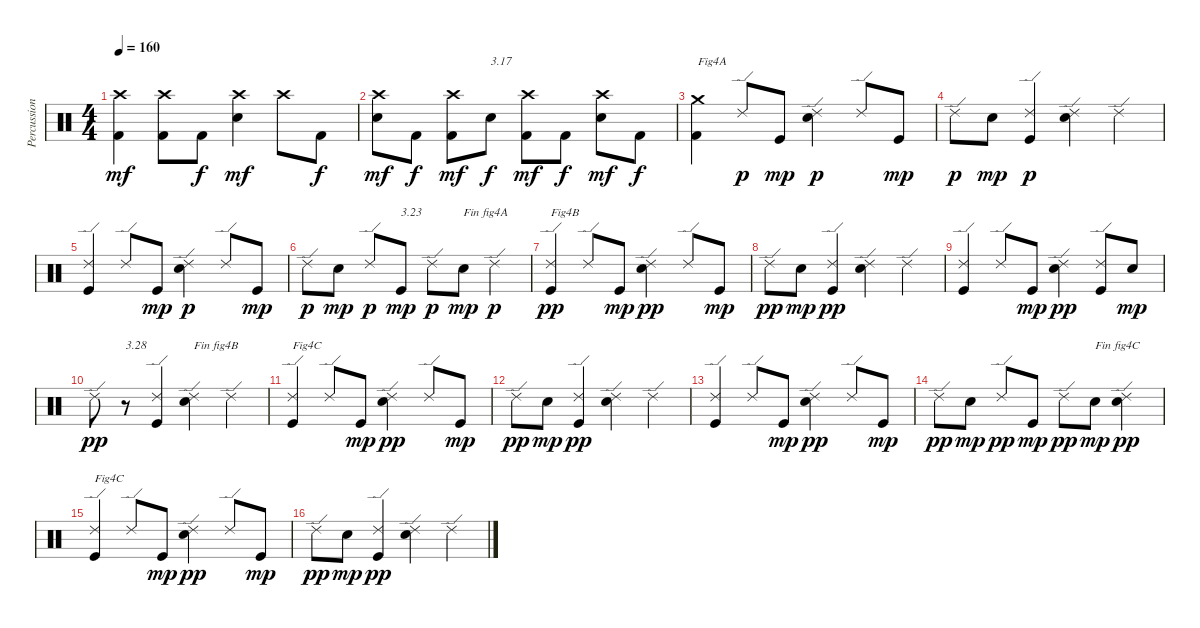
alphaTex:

\track ("Percussions" "Percussion") {instrument percussion}
\staff {score}
\articulation defaults
\ts (4 4)
\tempo 160
\clef neutral
\ks c
("Kick (hit) 2" "Crash high (hit)").4{dy mf} ("Kick (hit) 2" "Crash high (hit)").8 "Kick (hit) 2".8{dy f} ("Electric Snare (hit)" "Crash high (hit)").4{dy mf} "Crash high (hit)".8 "Kick (hit) 2".8{dy f} |
("Electric Snare (hit)" "Crash high (hit)").8{dy mf} "Kick (hit) 2".8{dy f} ("Kick (hit) 2" "Crash high (hit)").8{dy mf} "Electric Snare (hit)".8{txt "3.17" dy f} ("Kick (hit) 2" "Crash high (hit)").8{dy mf} "Kick (hit) 2".8{dy f} ("Electric Snare (hit)" "Crash high (hit)").8{dy mf} "Kick (hit) 2".8{dy f} |
("Kick (hit) 2" "Crash medium (hit)").4{txt "Fig4A"} "Ride (edge) 2".8{dy p} "Kick (hit)".8{dy mp} ("Snare (hit) 2" "Ride (edge) 2").4{dy p} "Ride (edge) 2".8 "Kick (hit)".8{dy mp} |
"Ride (edge) 2".8{dy p} "Snare (hit) 2".8{dy mp} ("Kick (hit)" "Ride (edge) 2").4{dy p} ("Snare (hit) 2" "Ride (edge) 2").4 "Ride (edge) 2".4 |
("Kick (hit)" "Ride (edge) 2").4 "Ride (edge) 2".8 "Kick (hit)".8{dy mp} ("Snare (hit) 2" "Ride (edge) 2").4{dy p} "Ride (edge) 2".8 "Kick (hit)".8{dy mp} |
"Ride (edge) 2".8{dy p} "Snare (hit) 2".8{dy mp} "Ride (edge) 2".8{dy p} "Kick (hit)".8{txt "3.23" dy mp} "Ride (edge) 2".8{dy p} "Snare (hit) 2".8{txt "Fin fig4A" dy mp} "Ride (edge) 2".4{dy p} |
("Kick (hit)" "Ride (edge) 2").4{txt "Fig4B" dy pp} "Ride (edge) 2".8 "Kick (hit)".8{dy mp} ("Snare (hit) 2" "Ride (edge) 2").4{dy pp} "Ride (edge) 2".8 "Kick (hit)".8{dy mp} |
"Ride (edge) 2".8{dy pp} "Snare (hit) 2".8{dy mp} ("Kick (hit)" "Ride (edge) 2").4{dy pp} ("Snare (hit) 2" "Ride (edge) 2").4 "Ride (edge) 2".4 |
("Kick (hit)" "Ride (edge) 2").4 "Ride (edge) 2".8 "Kick (hit)".8{dy mp} ("Snare (hit) 2" "Ride (edge) 2").4{dy pp} ("Kick (hit)" "Ride (edge) 2").8 "Snare (hit) 2".8{dy mp} |
"Ride (edge) 2".8{dy pp} r.8{txt "3.28"} ("Kick (hit)" "Ride (edge) 2").4 ("Snare (hit) 2" "Ride (edge) 2").4{txt "Fin fig4B"} "Ride (edge) 2".4 |
("Kick (hit)" "Ride (edge) 2").4{txt "Fig4C"} "Ride (edge) 2".8 "Kick (hit)".8{dy mp} ("Snare (hit) 2" "Ride (edge) 2").4{dy pp} "Ride (edge) 2".8 "Kick (hit)".8{dy mp} |
"Ride (edge) 2".8{dy pp} "Snare (hit) 2".8{dy mp} ("Kick (hit)" "Ride (edge) 2").4{dy pp} ("Snare (hit) 2" "Ride (edge) 2").4 "Ride (edge) 2".4 |
("Kick (hit)" "Ride (edge) 2").4 "Ride (edge) 2".8 "Kick (hit)".8{dy mp} ("Snare (hit) 2" "Ride (edge) 2").4{dy pp} "Ride (edge) 2".8 "Kick (hit)".8{dy mp} |
"Ride (edge) 2".8{dy pp} "Snare (hit) 2".8{dy mp} "Ride (edge) 2".8{dy pp} "Kick (hit)".8{dy mp} "Ride (edge) 2".8{dy pp} "Snare (hit) 2".8{txt "Fin fig4C" dy mp} ("Snare (hit) 2" "Ride (edge) 2").4{dy pp} |
("Kick (hit)" "Ride (edge) 2").4{txt "Fig4C"} "Ride (edge) 2".8 "Kick (hit)".8{dy mp} ("Snare (hit) 2" "Ride (edge) 2").4{dy pp} "Ride (edge) 2".8 "Kick (hit)".8{dy mp} |
"Ride (edge) 2".8{dy pp} "Snare (hit) 2".8{dy mp} ("Kick (hit)" "Ride (edge) 2").4{dy pp} ("Snare (hit) 2" "Ride (edge) 2").4 "Ride (edge) 2".4
